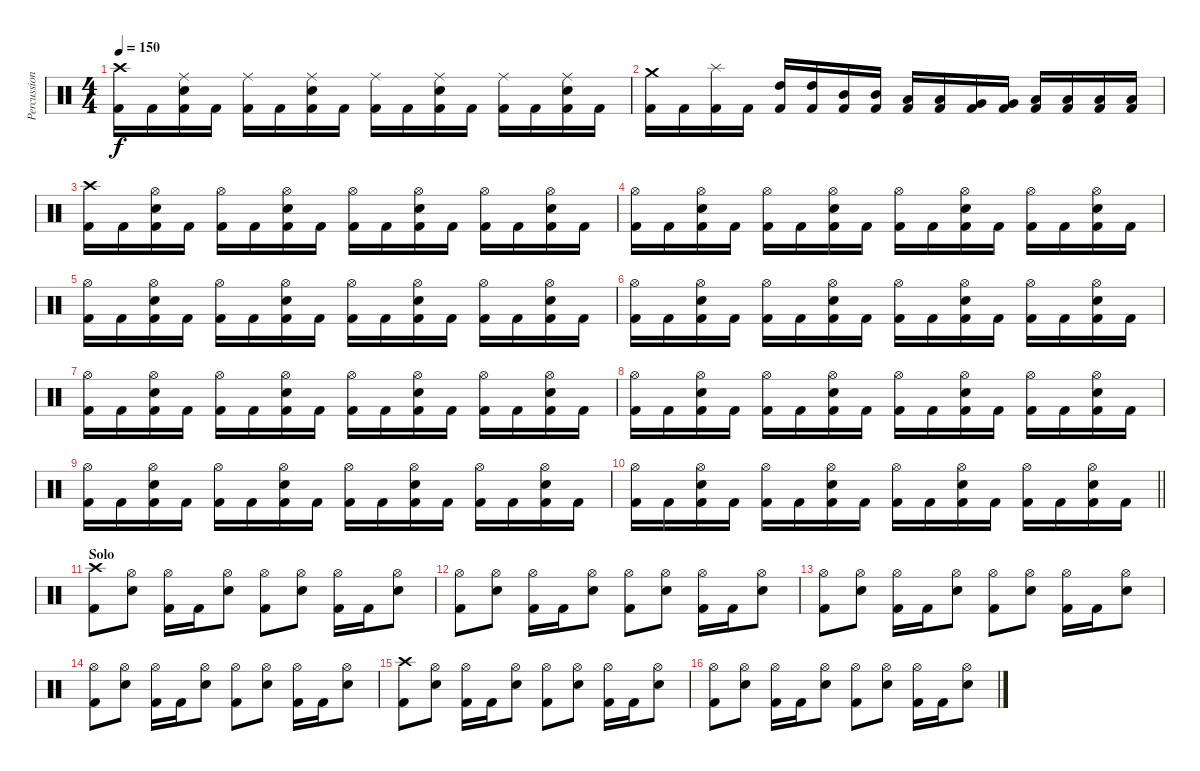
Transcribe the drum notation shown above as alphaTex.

\track ("Percussion" "Percussion") {instrument percussion}
\staff {score}
\articulation defaults
\ts (4 4)
\tempo 150
\clef neutral
\ks c
("Crash high (hit)" "Kick (hit) 2").16{dy f} "Kick (hit) 2".16 ("Ride (middle)" "Electric Snare (hit)" "Kick (hit) 2").16 "Kick (hit) 2".16 ("Ride (middle)" "Kick (hit) 2").16 "Kick (hit) 2".16 ("Ride (middle)" "Electric Snare (hit)" "Kick (hit) 2").16 "Kick (hit) 2".16 ("Ride (middle)" "Kick (hit) 2").16 "Kick (hit) 2".16 ("Ride (middle)" "Electric Snare (hit)" "Kick (hit) 2").16 "Kick (hit) 2".16 ("Ride (middle)" "Kick (hit) 2").16 "Kick (hit) 2".16 ("Ride (middle)" "Electric Snare (hit)" "Kick (hit) 2").16 "Kick (hit) 2".16 |
("Crash medium (hit)" "Kick (hit) 2").16 "Kick (hit) 2".16 ("Splash (hit)" "Kick (hit) 2").16 "Kick (hit) 2".16 ("High Tom (hit)" "Kick (hit) 2").16 ("High Tom (hit)" "Kick (hit) 2").16 ("Mid Tom (hit)" "Kick (hit) 2").16 ("Mid Tom (hit)" "Kick (hit) 2").16 ("Low Tom (hit)" "Kick (hit) 2").16 ("Low Tom (hit)" "Kick (hit) 2").16 ("Very Low Tom (hit)" "Kick (hit) 2").16 ("Very Low Tom (hit)" "Kick (hit) 2").16 ("Low Floor Tom (hit)" "Kick (hit) 2").16 ("Low Floor Tom (hit)" "Kick (hit) 2").16 ("Low Floor Tom (hit)" "Kick (hit) 2").16 ("Low Floor Tom (hit)" "Kick (hit) 2").16 |
("Crash high (hit)" "Kick (hit) 2").16 "Kick (hit) 2".16 ("Hi-Hat (open)" "Electric Snare (hit)" "Kick (hit) 2").16 "Kick (hit) 2".16 ("Hi-Hat (open)" "Kick (hit) 2").16 "Kick (hit) 2".16 ("Hi-Hat (open)" "Electric Snare (hit)" "Kick (hit) 2").16 "Kick (hit) 2".16 ("Hi-Hat (open)" "Kick (hit) 2").16 "Kick (hit) 2".16 ("Hi-Hat (open)" "Electric Snare (hit)" "Kick (hit) 2").16 "Kick (hit) 2".16 ("Hi-Hat (open)" "Kick (hit) 2").16 "Kick (hit) 2".16 ("Hi-Hat (open)" "Electric Snare (hit)" "Kick (hit) 2").16 "Kick (hit) 2".16 |
("Hi-Hat (open)" "Kick (hit) 2").16 "Kick (hit) 2".16 ("Hi-Hat (open)" "Electric Snare (hit)" "Kick (hit) 2").16 "Kick (hit) 2".16 ("Hi-Hat (open)" "Kick (hit) 2").16 "Kick (hit) 2".16 ("Hi-Hat (open)" "Electric Snare (hit)" "Kick (hit) 2").16 "Kick (hit) 2".16 ("Hi-Hat (open)" "Kick (hit) 2").16 "Kick (hit) 2".16 ("Hi-Hat (open)" "Electric Snare (hit)" "Kick (hit) 2").16 "Kick (hit) 2".16 ("Hi-Hat (open)" "Kick (hit) 2").16 "Kick (hit) 2".16 ("Hi-Hat (open)" "Electric Snare (hit)" "Kick (hit) 2").16 "Kick (hit) 2".16 |
("Hi-Hat (open)" "Kick (hit) 2").16 "Kick (hit) 2".16 ("Hi-Hat (open)" "Electric Snare (hit)" "Kick (hit) 2").16 "Kick (hit) 2".16 ("Hi-Hat (open)" "Kick (hit) 2").16 "Kick (hit) 2".16 ("Hi-Hat (open)" "Electric Snare (hit)" "Kick (hit) 2").16 "Kick (hit) 2".16 ("Hi-Hat (open)" "Kick (hit) 2").16 "Kick (hit) 2".16 ("Hi-Hat (open)" "Electric Snare (hit)" "Kick (hit) 2").16 "Kick (hit) 2".16 ("Hi-Hat (open)" "Kick (hit) 2").16 "Kick (hit) 2".16 ("Hi-Hat (open)" "Electric Snare (hit)" "Kick (hit) 2").16 "Kick (hit) 2".16 |
("Hi-Hat (open)" "Kick (hit) 2").16 "Kick (hit) 2".16 ("Hi-Hat (open)" "Electric Snare (hit)" "Kick (hit) 2").16 "Kick (hit) 2".16 ("Hi-Hat (open)" "Kick (hit) 2").16 "Kick (hit) 2".16 ("Hi-Hat (open)" "Electric Snare (hit)" "Kick (hit) 2").16 "Kick (hit) 2".16 ("Hi-Hat (open)" "Kick (hit) 2").16 "Kick (hit) 2".16 ("Hi-Hat (open)" "Electric Snare (hit)" "Kick (hit) 2").16 "Kick (hit) 2".16 ("Hi-Hat (open)" "Kick (hit) 2").16 "Kick (hit) 2".16 ("Hi-Hat (open)" "Electric Snare (hit)" "Kick (hit) 2").16 "Kick (hit) 2".16 |
("Hi-Hat (open)" "Kick (hit) 2").16 "Kick (hit) 2".16 ("Hi-Hat (open)" "Electric Snare (hit)" "Kick (hit) 2").16 "Kick (hit) 2".16 ("Hi-Hat (open)" "Kick (hit) 2").16 "Kick (hit) 2".16 ("Hi-Hat (open)" "Electric Snare (hit)" "Kick (hit) 2").16 "Kick (hit) 2".16 ("Hi-Hat (open)" "Kick (hit) 2").16 "Kick (hit) 2".16 ("Hi-Hat (open)" "Electric Snare (hit)" "Kick (hit) 2").16 "Kick (hit) 2".16 ("Hi-Hat (open)" "Kick (hit) 2").16 "Kick (hit) 2".16 ("Hi-Hat (open)" "Electric Snare (hit)" "Kick (hit) 2").16 "Kick (hit) 2".16 |
("Hi-Hat (open)" "Kick (hit) 2").16 "Kick (hit) 2".16 ("Hi-Hat (open)" "Electric Snare (hit)" "Kick (hit) 2").16 "Kick (hit) 2".16 ("Hi-Hat (open)" "Kick (hit) 2").16 "Kick (hit) 2".16 ("Hi-Hat (open)" "Electric Snare (hit)" "Kick (hit) 2").16 "Kick (hit) 2".16 ("Hi-Hat (open)" "Kick (hit) 2").16 "Kick (hit) 2".16 ("Hi-Hat (open)" "Electric Snare (hit)" "Kick (hit) 2").16 "Kick (hit) 2".16 ("Hi-Hat (open)" "Kick (hit) 2").16 "Kick (hit) 2".16 ("Hi-Hat (open)" "Electric Snare (hit)" "Kick (hit) 2").16 "Kick (hit) 2".16 |
("Hi-Hat (open)" "Kick (hit) 2").16 "Kick (hit) 2".16 ("Hi-Hat (open)" "Electric Snare (hit)" "Kick (hit) 2").16 "Kick (hit) 2".16 ("Hi-Hat (open)" "Kick (hit) 2").16 "Kick (hit) 2".16 ("Hi-Hat (open)" "Electric Snare (hit)" "Kick (hit) 2").16 "Kick (hit) 2".16 ("Hi-Hat (open)" "Kick (hit) 2").16 "Kick (hit) 2".16 ("Hi-Hat (open)" "Electric Snare (hit)" "Kick (hit) 2").16 "Kick (hit) 2".16 ("Hi-Hat (open)" "Kick (hit) 2").16 "Kick (hit) 2".16 ("Hi-Hat (open)" "Electric Snare (hit)" "Kick (hit) 2").16 "Kick (hit) 2".16 |
\barLineRight lightlight
("Hi-Hat (open)" "Kick (hit) 2").16 "Kick (hit) 2".16 ("Hi-Hat (open)" "Electric Snare (hit)" "Kick (hit) 2").16 "Kick (hit) 2".16 ("Hi-Hat (open)" "Kick (hit) 2").16 "Kick (hit) 2".16 ("Hi-Hat (open)" "Electric Snare (hit)" "Kick (hit) 2").16 "Kick (hit) 2".16 ("Hi-Hat (open)" "Kick (hit) 2").16 "Kick (hit) 2".16 ("Hi-Hat (open)" "Electric Snare (hit)" "Kick (hit) 2").16 "Kick (hit) 2".16 ("Hi-Hat (open)" "Kick (hit) 2").16 "Kick (hit) 2".16 ("Hi-Hat (open)" "Electric Snare (hit)" "Kick (hit) 2").16 "Kick (hit) 2".16 |
\section ("" "Solo")
("Crash high (hit)" "Kick (hit) 2").8 ("Hi-Hat (open)" "Electric Snare (hit)").8 ("Hi-Hat (open)" "Kick (hit) 2").16 "Kick (hit) 2".16 ("Hi-Hat (open)" "Electric Snare (hit)").8 ("Hi-Hat (open)" "Kick (hit) 2").8 ("Hi-Hat (open)" "Electric Snare (hit)").8 ("Hi-Hat (open)" "Kick (hit) 2").16 "Kick (hit) 2".16 ("Hi-Hat (open)" "Electric Snare (hit)").8 |
("Hi-Hat (open)" "Kick (hit) 2").8 ("Hi-Hat (open)" "Electric Snare (hit)").8 ("Hi-Hat (open)" "Kick (hit) 2").16 "Kick (hit) 2".16 ("Hi-Hat (open)" "Electric Snare (hit)").8 ("Hi-Hat (open)" "Kick (hit) 2").8 ("Hi-Hat (open)" "Electric Snare (hit)").8 ("Hi-Hat (open)" "Kick (hit) 2").16 "Kick (hit) 2".16 ("Hi-Hat (open)" "Electric Snare (hit)").8 |
("Hi-Hat (open)" "Kick (hit) 2").8 ("Hi-Hat (open)" "Electric Snare (hit)").8 ("Hi-Hat (open)" "Kick (hit) 2").16 "Kick (hit) 2".16 ("Hi-Hat (open)" "Electric Snare (hit)").8 ("Hi-Hat (open)" "Kick (hit) 2").8 ("Hi-Hat (open)" "Electric Snare (hit)").8 ("Hi-Hat (open)" "Kick (hit) 2").16 "Kick (hit) 2".16 ("Hi-Hat (open)" "Electric Snare (hit)").8 |
("Hi-Hat (open)" "Kick (hit) 2").8 ("Hi-Hat (open)" "Electric Snare (hit)").8 ("Hi-Hat (open)" "Kick (hit) 2").16 "Kick (hit) 2".16 ("Hi-Hat (open)" "Electric Snare (hit)").8 ("Hi-Hat (open)" "Kick (hit) 2").8 ("Hi-Hat (open)" "Electric Snare (hit)").8 ("Hi-Hat (open)" "Kick (hit) 2").16 "Kick (hit) 2".16 ("Hi-Hat (open)" "Electric Snare (hit)").8 |
("Crash high (hit)" "Kick (hit) 2").8 ("Hi-Hat (open)" "Electric Snare (hit)").8 ("Hi-Hat (open)" "Kick (hit) 2").16 "Kick (hit) 2".16 ("Hi-Hat (open)" "Electric Snare (hit)").8 ("Hi-Hat (open)" "Kick (hit) 2").8 ("Hi-Hat (open)" "Electric Snare (hit)").8 ("Hi-Hat (open)" "Kick (hit) 2").16 "Kick (hit) 2".16 ("Hi-Hat (open)" "Electric Snare (hit)").8 |
("Hi-Hat (open)" "Kick (hit) 2").8 ("Hi-Hat (open)" "Electric Snare (hit)").8 ("Hi-Hat (open)" "Kick (hit) 2").16 "Kick (hit) 2".16 ("Hi-Hat (open)" "Electric Snare (hit)").8 ("Hi-Hat (open)" "Kick (hit) 2").8 ("Hi-Hat (open)" "Electric Snare (hit)").8 ("Hi-Hat (open)" "Kick (hit) 2").16 "Kick (hit) 2".16 ("Hi-Hat (open)" "Electric Snare (hit)").8
